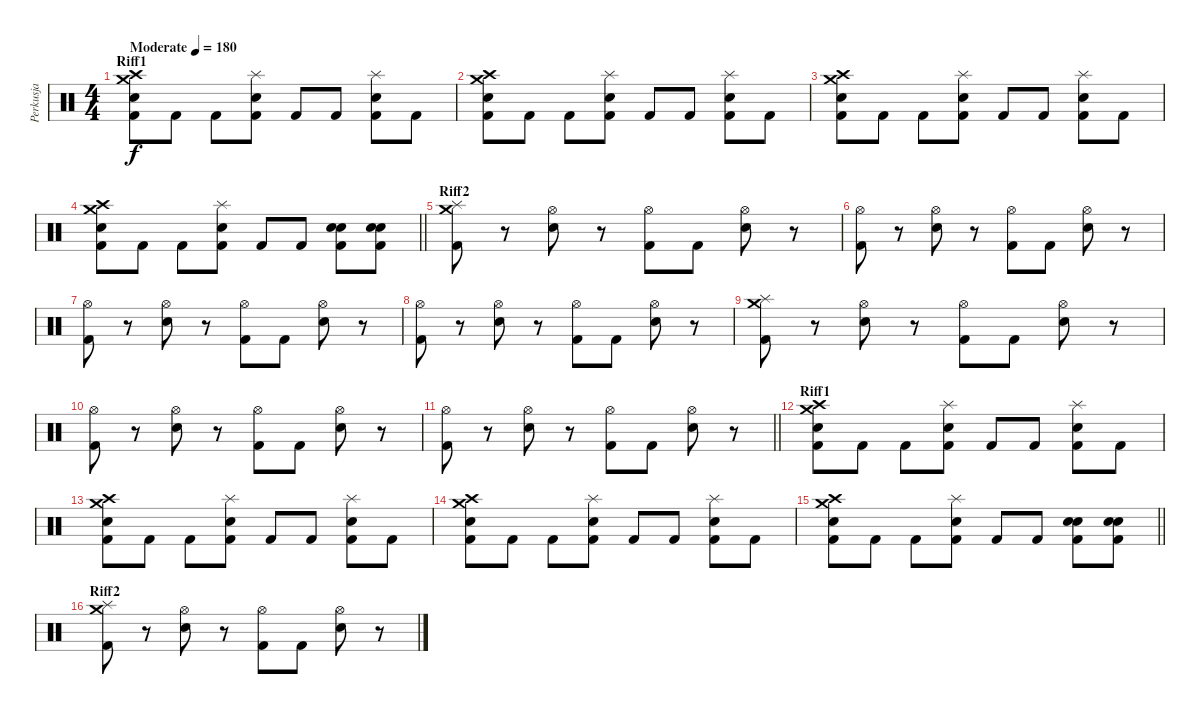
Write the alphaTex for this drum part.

\track ("Perkusja" "Perkusja") {instrument percussion}
\staff {score}
\articulation defaults
\ts (4 4)
\section ("" "Riff1")
\tempo (180 "Moderate")
\clef neutral
\ks c
("Crash medium (hit)" "Crash high (hit)" "Electric Snare (hit)" "Kick (hit) 2").8{dy f} "Kick (hit) 2".8 "Kick (hit) 2".8 ("Splash (hit)" "Electric Snare (hit)" "Kick (hit) 2").8 "Kick (hit) 2".8 "Kick (hit) 2".8 ("Splash (hit)" "Electric Snare (hit)" "Kick (hit) 2").8 "Kick (hit) 2".8 |
("Crash medium (hit)" "Crash high (hit)" "Electric Snare (hit)" "Kick (hit) 2").8 "Kick (hit) 2".8 "Kick (hit) 2".8 ("Splash (hit)" "Electric Snare (hit)" "Kick (hit) 2").8 "Kick (hit) 2".8 "Kick (hit) 2".8 ("Splash (hit)" "Electric Snare (hit)" "Kick (hit) 2").8 "Kick (hit) 2".8 |
("Crash medium (hit)" "Crash high (hit)" "Electric Snare (hit)" "Kick (hit) 2").8 "Kick (hit) 2".8 "Kick (hit) 2".8 ("Splash (hit)" "Electric Snare (hit)" "Kick (hit) 2").8 "Kick (hit) 2".8 "Kick (hit) 2".8 ("Splash (hit)" "Electric Snare (hit)" "Kick (hit) 2").8 "Kick (hit) 2".8 |
\barLineRight lightlight
("Crash medium (hit)" "Crash high (hit)" "Electric Snare (hit)" "Kick (hit) 2").8 "Kick (hit) 2".8 "Kick (hit) 2".8 ("Splash (hit)" "Electric Snare (hit)" "Kick (hit) 2").8 "Kick (hit) 2".8 "Kick (hit) 2".8 ("Snare (hit) 2" "Electric Snare (hit)" "Kick (hit) 2").8 ("Snare (hit) 2" "Electric Snare (hit)" "Kick (hit) 2").8 |
\section ("" "Riff2")
("Crash medium (hit)" "Splash (hit)" "Kick (hit) 2").8 r.8 ("Hi-Hat (open)" "Electric Snare (hit)").8 r.8 ("Hi-Hat (open)" "Kick (hit) 2").8 "Kick (hit) 2".8 ("Hi-Hat (open)" "Electric Snare (hit)").8 r.8 |
("Hi-Hat (open)" "Kick (hit) 2").8 r.8 ("Hi-Hat (open)" "Electric Snare (hit)").8 r.8 ("Hi-Hat (open)" "Kick (hit) 2").8 "Kick (hit) 2".8 ("Hi-Hat (open)" "Electric Snare (hit)").8 r.8 |
("Hi-Hat (open)" "Kick (hit) 2").8 r.8 ("Hi-Hat (open)" "Electric Snare (hit)").8 r.8 ("Hi-Hat (open)" "Kick (hit) 2").8 "Kick (hit) 2".8 ("Hi-Hat (open)" "Electric Snare (hit)").8 r.8 |
("Hi-Hat (open)" "Kick (hit) 2").8 r.8 ("Hi-Hat (open)" "Electric Snare (hit)").8 r.8 ("Hi-Hat (open)" "Kick (hit) 2").8 "Kick (hit) 2".8 ("Hi-Hat (open)" "Electric Snare (hit)").8 r.8 |
("Crash medium (hit)" "Splash (hit)" "Kick (hit) 2").8 r.8 ("Hi-Hat (open)" "Electric Snare (hit)").8 r.8 ("Hi-Hat (open)" "Kick (hit) 2").8 "Kick (hit) 2".8 ("Hi-Hat (open)" "Electric Snare (hit)").8 r.8 |
("Hi-Hat (open)" "Kick (hit) 2").8 r.8 ("Hi-Hat (open)" "Electric Snare (hit)").8 r.8 ("Hi-Hat (open)" "Kick (hit) 2").8 "Kick (hit) 2".8 ("Hi-Hat (open)" "Electric Snare (hit)").8 r.8 |
\barLineRight lightlight
("Hi-Hat (open)" "Kick (hit) 2").8 r.8 ("Hi-Hat (open)" "Electric Snare (hit)").8 r.8 ("Hi-Hat (open)" "Kick (hit) 2").8 "Kick (hit) 2".8 ("Hi-Hat (open)" "Electric Snare (hit)").8 r.8 |
\section ("" "Riff1")
("Crash medium (hit)" "Crash high (hit)" "Electric Snare (hit)" "Kick (hit) 2").8 "Kick (hit) 2".8 "Kick (hit) 2".8 ("Splash (hit)" "Electric Snare (hit)" "Kick (hit) 2").8 "Kick (hit) 2".8 "Kick (hit) 2".8 ("Splash (hit)" "Electric Snare (hit)" "Kick (hit) 2").8 "Kick (hit) 2".8 |
("Crash medium (hit)" "Crash high (hit)" "Electric Snare (hit)" "Kick (hit) 2").8 "Kick (hit) 2".8 "Kick (hit) 2".8 ("Splash (hit)" "Electric Snare (hit)" "Kick (hit) 2").8 "Kick (hit) 2".8 "Kick (hit) 2".8 ("Splash (hit)" "Electric Snare (hit)" "Kick (hit) 2").8 "Kick (hit) 2".8 |
("Crash medium (hit)" "Crash high (hit)" "Electric Snare (hit)" "Kick (hit) 2").8 "Kick (hit) 2".8 "Kick (hit) 2".8 ("Splash (hit)" "Electric Snare (hit)" "Kick (hit) 2").8 "Kick (hit) 2".8 "Kick (hit) 2".8 ("Splash (hit)" "Electric Snare (hit)" "Kick (hit) 2").8 "Kick (hit) 2".8 |
\barLineRight lightlight
("Crash medium (hit)" "Crash high (hit)" "Electric Snare (hit)" "Kick (hit) 2").8 "Kick (hit) 2".8 "Kick (hit) 2".8 ("Splash (hit)" "Electric Snare (hit)" "Kick (hit) 2").8 "Kick (hit) 2".8 "Kick (hit) 2".8 ("Snare (hit) 2" "Electric Snare (hit)" "Kick (hit) 2").8 ("Snare (hit) 2" "Electric Snare (hit)" "Kick (hit) 2").8 |
\section ("" "Riff2")
("Crash medium (hit)" "Splash (hit)" "Kick (hit) 2").8 r.8 ("Hi-Hat (open)" "Electric Snare (hit)").8 r.8 ("Hi-Hat (open)" "Kick (hit) 2").8 "Kick (hit) 2".8 ("Hi-Hat (open)" "Electric Snare (hit)").8 r.8
